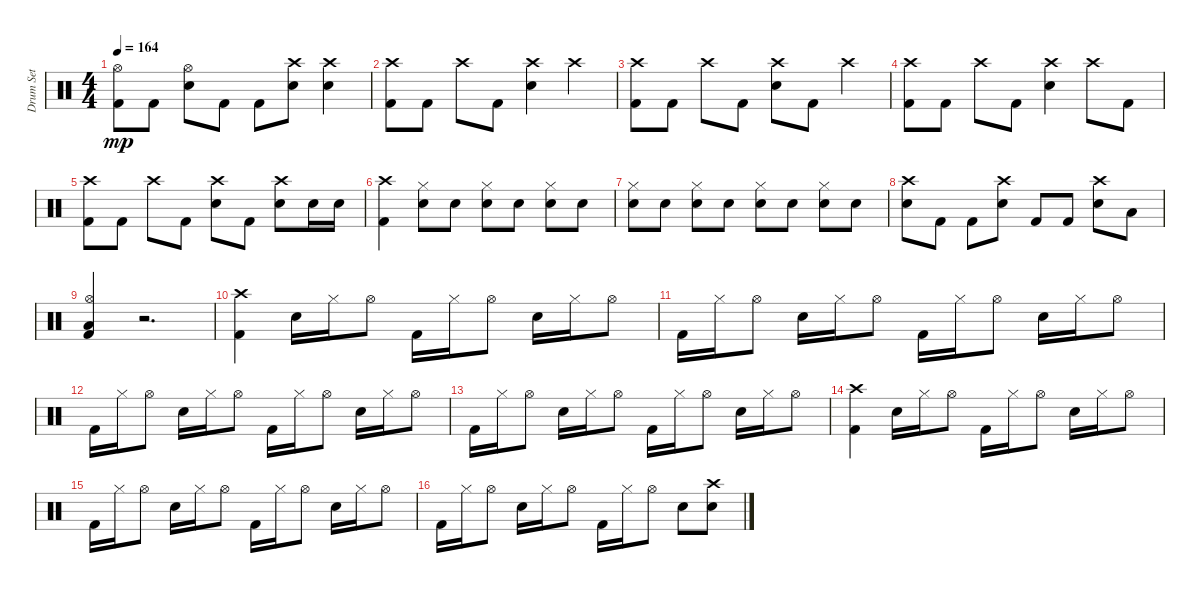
\track ("Drum Set" "Drum Set") {instrument percussion}
\staff {score}
\articulation defaults
\ts (4 4)
\tempo 164
\clef neutral
\ks c
("Kick (hit) 2" "Hi-Hat (open)").8{dy mp} "Kick (hit) 2".8 ("Snare (hit) 2" "Hi-Hat (open)").8 "Kick (hit) 2".8 "Kick (hit) 2".8 ("Snare (hit) 2" "Crash high (hit)").8 ("Snare (hit) 2" "Crash high (hit)").4 |
("Kick (hit) 2" "Crash high (hit)").8 "Kick (hit) 2".8 "Crash high (hit)".8 "Kick (hit) 2".8 ("Snare (hit) 2" "Crash high (hit)").4 "Crash high (hit)".4 |
("Kick (hit) 2" "Crash high (hit)").8 "Kick (hit) 2".8 "Crash high (hit)".8 "Kick (hit) 2".8 ("Snare (hit) 2" "Crash high (hit)").8 "Kick (hit) 2".8 "Crash high (hit)".4 |
("Kick (hit) 2" "Crash high (hit)").8 "Kick (hit) 2".8 "Crash high (hit)".8 "Kick (hit) 2".8 ("Snare (hit) 2" "Crash high (hit)").4 "Crash high (hit)".8 "Kick (hit) 2".8 |
("Kick (hit) 2" "Crash high (hit)").8 "Kick (hit) 2".8 "Crash high (hit)".8 "Kick (hit) 2".8 ("Snare (hit) 2" "Crash high (hit)").8 "Kick (hit) 2".8 ("Snare (hit) 2" "Crash high (hit)").8 "Snare (hit) 2".16 "Snare (hit) 2".16 |
("Kick (hit) 2" "Crash high (hit)").4 ("Snare (hit) 2" "Hi-Hat (closed)").8 "Snare (hit) 2".8 ("Snare (hit) 2" "Hi-Hat (closed)").8 "Snare (hit) 2".8 ("Snare (hit) 2" "Hi-Hat (closed)").8 "Snare (hit) 2".8 |
("Snare (hit) 2" "Hi-Hat (closed)").8 "Snare (hit) 2".8 ("Snare (hit) 2" "Hi-Hat (closed)").8 "Snare (hit) 2".8 ("Snare (hit) 2" "Hi-Hat (closed)").8 "Snare (hit) 2".8 ("Snare (hit) 2" "Hi-Hat (closed)").8 "Snare (hit) 2".8 |
("Snare (hit) 2" "Crash high (hit)").8 "Kick (hit) 2".8 "Kick (hit) 2".8 ("Snare (hit) 2" "Crash high (hit)").8 "Kick (hit) 2".8 "Kick (hit) 2".8 ("Snare (hit) 2" "Crash high (hit)").8 "Low Tom (hit)".8 |
("Kick (hit) 2" "Low Tom (hit)" "Hi-Hat (open)").4 r.2{d} |
("Kick (hit) 2" "Crash high (hit)").4 "Snare (hit) 2".16 "Hi-Hat (closed)".16 "Hi-Hat (open)".8 "Kick (hit) 2".16 "Hi-Hat (closed)".16 "Hi-Hat (open)".8 "Snare (hit) 2".16 "Hi-Hat (closed)".16 "Hi-Hat (open)".8 |
"Kick (hit) 2".16 "Hi-Hat (closed)".16 "Hi-Hat (open)".8 "Snare (hit) 2".16 "Hi-Hat (closed)".16 "Hi-Hat (open)".8 "Kick (hit) 2".16 "Hi-Hat (closed)".16 "Hi-Hat (open)".8 "Snare (hit) 2".16 "Hi-Hat (closed)".16 "Hi-Hat (open)".8 |
"Kick (hit) 2".16 "Hi-Hat (closed)".16 "Hi-Hat (open)".8 "Snare (hit) 2".16 "Hi-Hat (closed)".16 "Hi-Hat (open)".8 "Kick (hit) 2".16 "Hi-Hat (closed)".16 "Hi-Hat (open)".8 "Snare (hit) 2".16 "Hi-Hat (closed)".16 "Hi-Hat (open)".8 |
"Kick (hit) 2".16 "Hi-Hat (closed)".16 "Hi-Hat (open)".8 "Snare (hit) 2".16 "Hi-Hat (closed)".16 "Hi-Hat (open)".8 "Kick (hit) 2".16 "Hi-Hat (closed)".16 "Hi-Hat (open)".8 "Snare (hit) 2".16 "Hi-Hat (closed)".16 "Hi-Hat (open)".8 |
("Kick (hit) 2" "Crash high (hit)").4 "Snare (hit) 2".16 "Hi-Hat (closed)".16 "Hi-Hat (open)".8 "Kick (hit) 2".16 "Hi-Hat (closed)".16 "Hi-Hat (open)".8 "Snare (hit) 2".16 "Hi-Hat (closed)".16 "Hi-Hat (open)".8 |
"Kick (hit) 2".16 "Hi-Hat (closed)".16 "Hi-Hat (open)".8 "Snare (hit) 2".16 "Hi-Hat (closed)".16 "Hi-Hat (open)".8 "Kick (hit) 2".16 "Hi-Hat (closed)".16 "Hi-Hat (open)".8 "Snare (hit) 2".16 "Hi-Hat (closed)".16 "Hi-Hat (open)".8 |
"Kick (hit) 2".16 "Hi-Hat (closed)".16 "Hi-Hat (open)".8 "Snare (hit) 2".16 "Hi-Hat (closed)".16 "Hi-Hat (open)".8 "Kick (hit) 2".16 "Hi-Hat (closed)".16 "Hi-Hat (open)".8 "Snare (hit) 2".8 ("Snare (hit) 2" "Crash high (hit)").8
